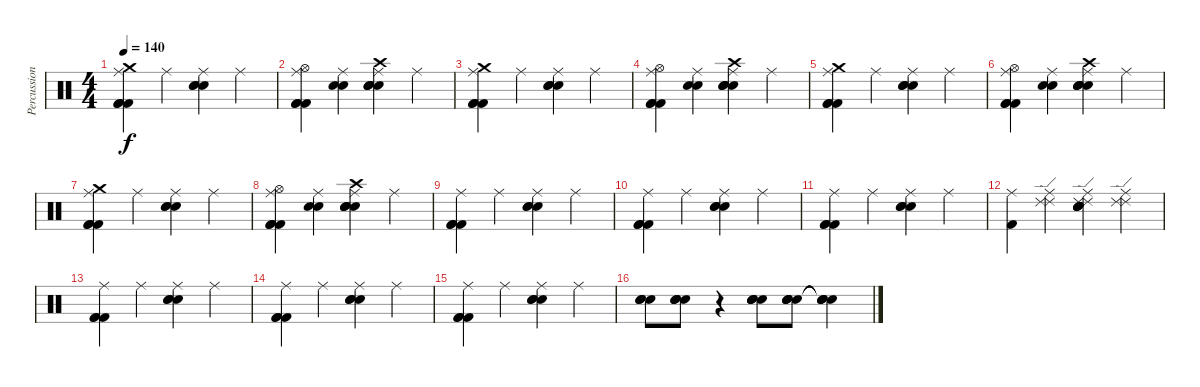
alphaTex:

\track ("Percussion" "Percussion") {instrument percussion}
\staff {score}
\articulation defaults
\ts (4 4)
\tempo 140
\clef neutral
\ks c
("Ride (middle)" "Kick (hit) 2" "Kick (hit) 2" "Kick (hit) 2" "Crash medium (hit)").4{dy f} "Ride (middle)".4 ("Ride (middle)" "Electric Snare (hit)" "Electric Snare (hit)" "Electric Snare (hit)").4 "Ride (middle)".4 |
("Ride (middle)" "Kick (hit) 2" "Kick (hit) 2" "Kick (hit) 2" "Hi-Hat (open)").4 ("Ride (middle)" "Electric Snare (hit)" "Electric Snare (hit)").4 ("Ride (middle)" "Electric Snare (hit)" "Electric Snare (hit)" "Electric Snare (hit)" "Electric Snare (hit)" "Crash high (hit)").4 "Ride (middle)".4 |
("Ride (middle)" "Kick (hit) 2" "Kick (hit) 2" "Kick (hit) 2" "Crash medium (hit)").4 "Ride (middle)".4 ("Ride (middle)" "Electric Snare (hit)" "Electric Snare (hit)" "Electric Snare (hit)").4 "Ride (middle)".4 |
("Ride (middle)" "Kick (hit) 2" "Kick (hit) 2" "Kick (hit) 2" "Hi-Hat (open)").4 ("Ride (middle)" "Electric Snare (hit)" "Electric Snare (hit)").4 ("Ride (middle)" "Electric Snare (hit)" "Electric Snare (hit)" "Electric Snare (hit)" "Electric Snare (hit)" "Crash high (hit)").4 "Ride (middle)".4 |
("Ride (middle)" "Kick (hit) 2" "Kick (hit) 2" "Kick (hit) 2" "Crash medium (hit)").4 "Ride (middle)".4 ("Ride (middle)" "Electric Snare (hit)" "Electric Snare (hit)" "Electric Snare (hit)").4 "Ride (middle)".4 |
("Ride (middle)" "Kick (hit) 2" "Kick (hit) 2" "Kick (hit) 2" "Hi-Hat (open)").4 ("Ride (middle)" "Electric Snare (hit)" "Electric Snare (hit)").4 ("Ride (middle)" "Electric Snare (hit)" "Electric Snare (hit)" "Electric Snare (hit)" "Electric Snare (hit)" "Crash high (hit)").4 "Ride (middle)".4 |
("Ride (middle)" "Kick (hit) 2" "Kick (hit) 2" "Kick (hit) 2" "Crash medium (hit)").4 "Ride (middle)".4 ("Ride (middle)" "Electric Snare (hit)" "Electric Snare (hit)" "Electric Snare (hit)").4 "Ride (middle)".4 |
("Ride (middle)" "Kick (hit) 2" "Kick (hit) 2" "Kick (hit) 2" "Hi-Hat (open)").4 ("Ride (middle)" "Electric Snare (hit)" "Electric Snare (hit)").4 ("Ride (middle)" "Electric Snare (hit)" "Electric Snare (hit)" "Electric Snare (hit)" "Electric Snare (hit)" "Crash high (hit)").4 "Ride (middle)".4 |
("Ride (middle)" "Kick (hit) 2" "Kick (hit) 2" "Kick (hit) 2").4 "Ride (middle)".4 ("Ride (middle)" "Electric Snare (hit)" "Electric Snare (hit)" "Electric Snare (hit)").4 "Ride (middle)".4 |
("Ride (middle)" "Kick (hit) 2" "Kick (hit) 2" "Kick (hit) 2").4 "Ride (middle)".4 ("Ride (middle)" "Electric Snare (hit)" "Electric Snare (hit)" "Electric Snare (hit)").4 "Ride (middle)".4 |
("Ride (middle)" "Kick (hit) 2" "Kick (hit) 2" "Kick (hit) 2").4 "Ride (middle)".4 ("Ride (middle)" "Electric Snare (hit)" "Electric Snare (hit)" "Electric Snare (hit)").4 "Ride (middle)".4 |
("Ride (middle)" "Kick (hit) 2").4 ("Ride (middle)" "Ride (edge) 2" "Ride (edge) 2").4 ("Ride (middle)" "Electric Snare (hit)" "Electric Snare (hit)" "Electric Snare (hit)" "Ride (edge) 2" "Ride (edge) 2").4 ("Ride (middle)" "Ride (edge) 2" "Ride (edge) 2").4 |
("Ride (middle)" "Kick (hit) 2" "Kick (hit) 2" "Kick (hit) 2").4 "Ride (middle)".4 ("Ride (middle)" "Electric Snare (hit)" "Electric Snare (hit)" "Electric Snare (hit)").4 "Ride (middle)".4 |
("Ride (middle)" "Kick (hit) 2" "Kick (hit) 2" "Kick (hit) 2").4 "Ride (middle)".4 ("Ride (middle)" "Electric Snare (hit)" "Electric Snare (hit)" "Electric Snare (hit)").4 "Ride (middle)".4 |
("Ride (middle)" "Kick (hit) 2" "Kick (hit) 2" "Kick (hit) 2").4 "Ride (middle)".4 ("Ride (middle)" "Electric Snare (hit)" "Electric Snare (hit)" "Electric Snare (hit)").4 "Ride (middle)".4 |
("Electric Snare (hit)" "Electric Snare (hit)" "Electric Snare (hit)" "Electric Snare (hit)").8 ("Electric Snare (hit)" "Electric Snare (hit)" "Electric Snare (hit)" "Electric Snare (hit)").8 r.4 ("Electric Snare (hit)" "Electric Snare (hit)" "Electric Snare (hit)" "Electric Snare (hit)").8 ("Electric Snare (hit)" "Electric Snare (hit)" "Electric Snare (hit)" "Electric Snare (hit)").8 ("Snare (hit)"{t} "Snare (hit)"{t} "Snare (hit)"{t} "Snare (hit)"{t}).4
